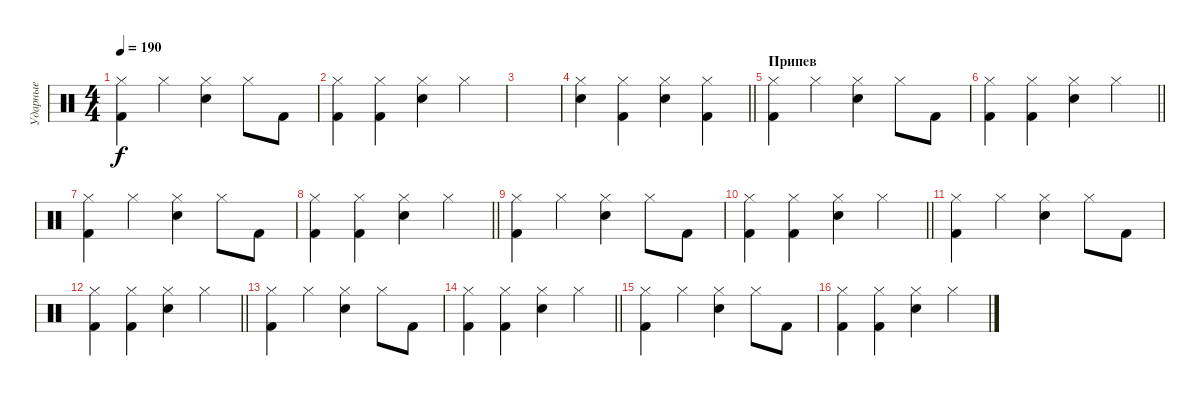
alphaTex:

\track ("Ударные" "Ударные") {instrument percussion}
\staff {score}
\articulation defaults
\ts (4 4)
\tempo 190
\clef neutral
\ks c
("Kick (hit) 2" "Hi-Hat (closed)").4{dy f} "Hi-Hat (closed)".4 ("Hand Clap (hit)" "Hi-Hat (closed)").4 "Hi-Hat (closed)".8 "Kick (hit) 2".8 |
("Kick (hit) 2" "Hi-Hat (closed)").4 ("Kick (hit) 2" "Hi-Hat (closed)").4 ("Hand Clap (hit)" "Hi-Hat (closed)").4 "Hi-Hat (closed)".4 |
|
\barLineRight lightlight
("Hand Clap (hit)" "Hi-Hat (closed)").4 ("Kick (hit) 2" "Hi-Hat (closed)").4 ("Hand Clap (hit)" "Hi-Hat (closed)").4 ("Kick (hit) 2" "Hi-Hat (closed)").4 |
\section ("" "Припев")
("Kick (hit) 2" "Hi-Hat (closed)").4 "Hi-Hat (closed)".4 ("Hand Clap (hit)" "Hi-Hat (closed)").4 "Hi-Hat (closed)".8 "Kick (hit) 2".8 |
\barLineRight lightlight
("Kick (hit) 2" "Hi-Hat (closed)").4 ("Kick (hit) 2" "Hi-Hat (closed)").4 ("Hand Clap (hit)" "Hi-Hat (closed)").4 "Hi-Hat (closed)".4 |
("Kick (hit) 2" "Hi-Hat (closed)").4 "Hi-Hat (closed)".4 ("Hand Clap (hit)" "Hi-Hat (closed)").4 "Hi-Hat (closed)".8 "Kick (hit) 2".8 |
\barLineRight lightlight
("Kick (hit) 2" "Hi-Hat (closed)").4 ("Kick (hit) 2" "Hi-Hat (closed)").4 ("Hand Clap (hit)" "Hi-Hat (closed)").4 "Hi-Hat (closed)".4 |
("Kick (hit) 2" "Hi-Hat (closed)").4 "Hi-Hat (closed)".4 ("Hand Clap (hit)" "Hi-Hat (closed)").4 "Hi-Hat (closed)".8 "Kick (hit) 2".8 |
\barLineRight lightlight
("Kick (hit) 2" "Hi-Hat (closed)").4 ("Kick (hit) 2" "Hi-Hat (closed)").4 ("Hand Clap (hit)" "Hi-Hat (closed)").4 "Hi-Hat (closed)".4 |
("Kick (hit) 2" "Hi-Hat (closed)").4 "Hi-Hat (closed)".4 ("Hand Clap (hit)" "Hi-Hat (closed)").4 "Hi-Hat (closed)".8 "Kick (hit) 2".8 |
\barLineRight lightlight
("Kick (hit) 2" "Hi-Hat (closed)").4 ("Kick (hit) 2" "Hi-Hat (closed)").4 ("Hand Clap (hit)" "Hi-Hat (closed)").4 "Hi-Hat (closed)".4 |
("Kick (hit) 2" "Hi-Hat (closed)").4 "Hi-Hat (closed)".4 ("Hand Clap (hit)" "Hi-Hat (closed)").4 "Hi-Hat (closed)".8 "Kick (hit) 2".8 |
\barLineRight lightlight
("Kick (hit) 2" "Hi-Hat (closed)").4 ("Kick (hit) 2" "Hi-Hat (closed)").4 ("Hand Clap (hit)" "Hi-Hat (closed)").4 "Hi-Hat (closed)".4 |
("Kick (hit) 2" "Hi-Hat (closed)").4 "Hi-Hat (closed)".4 ("Hand Clap (hit)" "Hi-Hat (closed)").4 "Hi-Hat (closed)".8 "Kick (hit) 2".8 |
("Kick (hit) 2" "Hi-Hat (closed)").4 ("Kick (hit) 2" "Hi-Hat (closed)").4 ("Hand Clap (hit)" "Hi-Hat (closed)").4 "Hi-Hat (closed)".4
